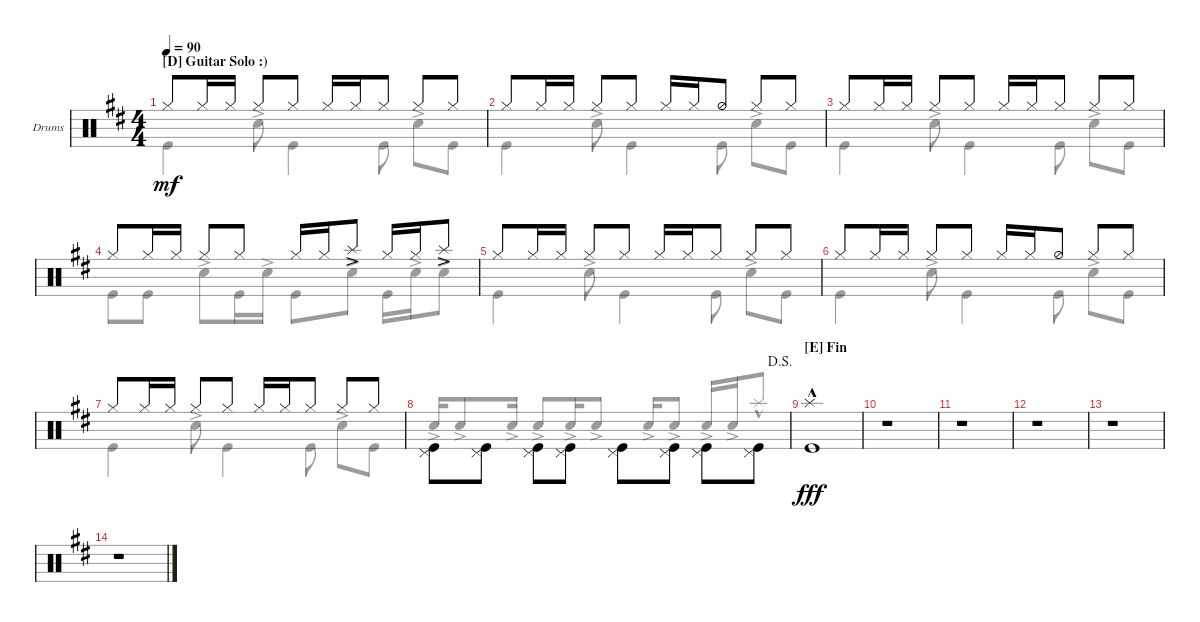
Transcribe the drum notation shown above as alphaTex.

\defaultSystemsLayout 4
\bracketExtendMode groupsimilarinstruments
\firstSystemTrackNameOrientation horizontal
\otherSystemsTrackNameOrientation horizontal
\track ("Drumkit" "Drums") {instrument percussion}
\staff {score}
\articulation defaults
\voice
\ts (4 4)
\section ("D" "Guitar Solo :)")
\tempo 90
\clef neutral
\scale
0.5
\ks d "Hi-Hat (closed)".8{dy mf} "Hi-Hat (closed)".16 "Hi-Hat (closed)".16 "Hi-Hat (closed)".8 "Hi-Hat (closed)".8 "Hi-Hat (closed)".16 "Hi-Hat (closed)".16 "Hi-Hat (closed)".8 "Hi-Hat (closed)".8 "Hi-Hat (closed)".8
|
\scale
0.5 "Hi-Hat (closed)".8 "Hi-Hat (closed)".16 "Hi-Hat (closed)".16 "Hi-Hat (closed)".8 "Hi-Hat (closed)".8 "Hi-Hat (closed)".16 "Hi-Hat (closed)".16 "Hi-Hat (half)".8 "Hi-Hat (closed)".8 "Hi-Hat (closed)".8 |
\scale
0.5 "Hi-Hat (closed)".8 "Hi-Hat (closed)".16 "Hi-Hat (closed)".16 "Hi-Hat (closed)".8 "Hi-Hat (closed)".8 "Hi-Hat (closed)".16 "Hi-Hat (closed)".16 "Hi-Hat (closed)".8 "Hi-Hat (closed)".8 "Hi-Hat (closed)".8 |
\scale
0.5 "Hi-Hat (closed)".8 "Hi-Hat (closed)".16 "Hi-Hat (closed)".16 "Hi-Hat (closed)".8 "Hi-Hat (closed)".8 "Hi-Hat (closed)".16 "Hi-Hat (closed)".16 "Splash (hit)"{ac}.8 "Hi-Hat (closed)".16 "Hi-Hat (closed)".16 "Splash (hit)"{ac}.8 |
\scale
0.5 "Hi-Hat (closed)".8 "Hi-Hat (closed)".16 "Hi-Hat (closed)".16 "Hi-Hat (closed)".8 "Hi-Hat (closed)".8 "Hi-Hat (closed)".16 "Hi-Hat (closed)".16 "Hi-Hat (closed)".8 "Hi-Hat (closed)".8 "Hi-Hat (closed)".8 |
\scale
0.5 "Hi-Hat (closed)".8 "Hi-Hat (closed)".16 "Hi-Hat (closed)".16 "Hi-Hat (closed)".8 "Hi-Hat (closed)".8 "Hi-Hat (closed)".16 "Hi-Hat (closed)".16 "Hi-Hat (half)".8 "Hi-Hat (closed)".8 "Hi-Hat (closed)".8 |
\scale
0.5 "Hi-Hat (closed)".8 "Hi-Hat (closed)".16 "Hi-Hat (closed)".16 "Hi-Hat (closed)".8 "Hi-Hat (closed)".8 "Hi-Hat (closed)".16 "Hi-Hat (closed)".16 "Hi-Hat (closed)".8 "Hi-Hat (closed)".8 "Hi-Hat (closed)".8 |
\jump dalsegno
\scale
0.5 ("Pedal Hi-Hat (hit)" "Kick (hit)").8{beam invert} ("Pedal Hi-Hat (hit)" "Kick (hit)").8 ("Pedal Hi-Hat (hit)" "Kick (hit)").8{beam invert} ("Pedal Hi-Hat (hit)" "Kick (hit)").8 ("Pedal Hi-Hat (hit)" "Kick (hit)").8{beam invert} ("Pedal Hi-Hat (hit)" "Kick (hit)").8 ("Pedal Hi-Hat (hit)" "Kick (hit)").8{beam invert} ("Pedal Hi-Hat (hit)" "Kick (hit)").8 |
\section ("E" "Fin")
\scale
0.5 ("Kick (hit)" "Splash (hit)"{hac}).1{dy fff} |
\scale
0.5 r.1 |
\scale
0.5 r.1 |
\scale
0.5 r.1 |
\scale
0.5 r.1 |
\scale
0.5 r.1
\voice
\clef neutral
\ottava regular
\simile none
\scale
0.5
\ks d "Kick (hit)".4{dy mf} "Snare (hit) 2"{ac}.8 "Kick (hit)".4 "Kick (hit)".8 "Snare (hit) 2"{ac}.8 "Kick (hit)".8
|
\scale
0.5 "Kick (hit)".4 "Snare (hit) 2"{ac}.8 "Kick (hit)".4 "Kick (hit)".8 "Snare (hit) 2"{ac}.8 "Kick (hit)".8 |
\scale
0.5 "Kick (hit)".4 "Snare (hit) 2"{ac}.8 "Kick (hit)".4 "Kick (hit)".8 "Snare (hit) 2"{ac}.8 "Kick (hit)".8 |
\scale
0.5 "Kick (hit)".8 "Kick (hit)".8 "Snare (hit) 2"{ac}.8 "Kick (hit)".16 "Snare (hit) 2"{ac}.16 "Kick (hit)".8 "Snare (hit) 2"{ac}.8 "Kick (hit)".16 "Snare (hit) 2"{ac}.16 "Snare (hit) 2"{ac}.8 |
\scale
0.5 "Kick (hit)".4 "Snare (hit) 2"{ac}.8 "Kick (hit)".4 "Kick (hit)".8 "Snare (hit) 2"{ac}.8 "Kick (hit)".8 |
\scale
0.5 "Kick (hit)".4 "Snare (hit) 2"{ac}.8 "Kick (hit)".4 "Kick (hit)".8 "Snare (hit) 2"{ac}.8 "Kick (hit)".8 |
\scale
0.5 "Kick (hit)".4 "Snare (hit) 2"{ac}.8 "Kick (hit)".4 "Kick (hit)".8 "Snare (hit) 2"{ac}.8 "Kick (hit)".8 |
\scale
0.5 "Snare (hit) 2"{ac}.16{beam invert} "Snare (hit) 2"{ac}.8 "Snare (hit) 2"{ac}.16 "Snare (hit) 2"{ac}.8{beam invert} "Snare (hit) 2"{ac}.16 "Snare (hit) 2"{ac}.8 "Snare (hit) 2"{ac}.16{beam invert} "Snare (hit) 2"{ac}.8 "Snare (hit) 2"{ac}.16{beam invert} "Snare (hit) 2"{ac}.16 "Splash (hit)"{hac}.8 |
\scale
0.5 |
\scale
0.5 |
\scale
0.5 |
\scale
0.5 |
\scale
0.5 |
\scale
0.5
